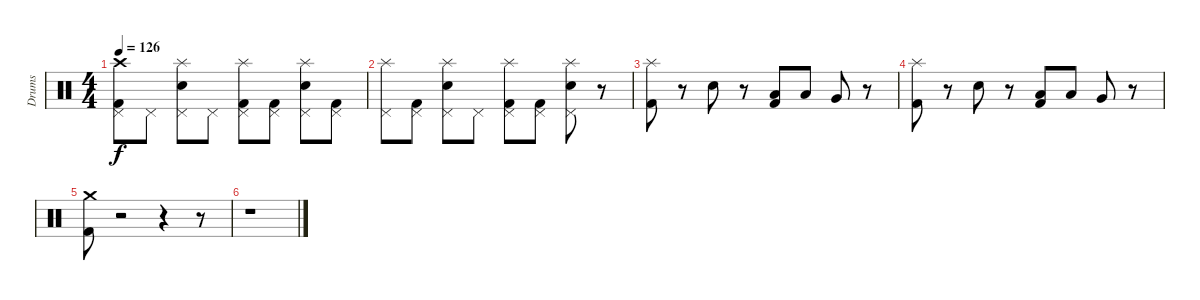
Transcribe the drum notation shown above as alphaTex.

\track ("Drums" "Drums") {instrument percussion}
\staff {score}
\articulation defaults
\ts (4 4)
\tempo 126
\clef neutral
\ks c
("Pedal Hi-Hat (hit)" "Kick (hit) 2" "Crash high (hit)").8{dy f} "Pedal Hi-Hat (hit)".8 ("Pedal Hi-Hat (hit)" "Electric Snare (hit)" "Splash (hit)").8 "Pedal Hi-Hat (hit)".8 ("Pedal Hi-Hat (hit)" "Kick (hit) 2" "Splash (hit)").8 ("Kick (hit) 2" "Pedal Hi-Hat (hit)").8 ("Splash (hit)" "Electric Snare (hit)" "Pedal Hi-Hat (hit)").8 ("Pedal Hi-Hat (hit)" "Kick (hit) 2").8 |
("Splash (hit)" "Pedal Hi-Hat (hit)").8 ("Kick (hit) 2" "Pedal Hi-Hat (hit)").8 ("Splash (hit)" "Electric Snare (hit)" "Pedal Hi-Hat (hit)").8 "Pedal Hi-Hat (hit)".8 ("Splash (hit)" "Kick (hit) 2" "Pedal Hi-Hat (hit)").8 ("Pedal Hi-Hat (hit)" "Kick (hit) 2").8 ("Pedal Hi-Hat (hit)" "Electric Snare (hit)" "Splash (hit)").8 r.8 |
("Kick (hit) 2" "Splash (hit)").8 r.8 "Electric Snare (hit)".8 r.8 ("Low Tom (hit)" "Kick (hit) 2").8 "Low Tom (hit)".8 "Very Low Tom (hit)".8 r.8 |
("Kick (hit) 2" "Splash (hit)").8 r.8 "Electric Snare (hit)".8 r.8 ("Low Tom (hit)" "Kick (hit) 2").8 "Low Tom (hit)".8 "Very Low Tom (hit)".8 r.8 |
("Kick (hit) 2" "Crash medium (hit)").8 r.2 r.4 r.8 |
r.1
